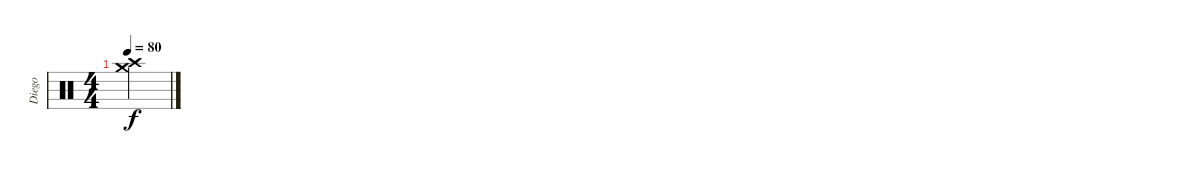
\track ("Diego" "Diego") {instrument percussion}
\staff {score}
\articulation defaults
\ts (4 4)
\tempo 80
\clef neutral
\ks c
("Crash medium (hit)" "Crash high (hit)").4{dy f}
